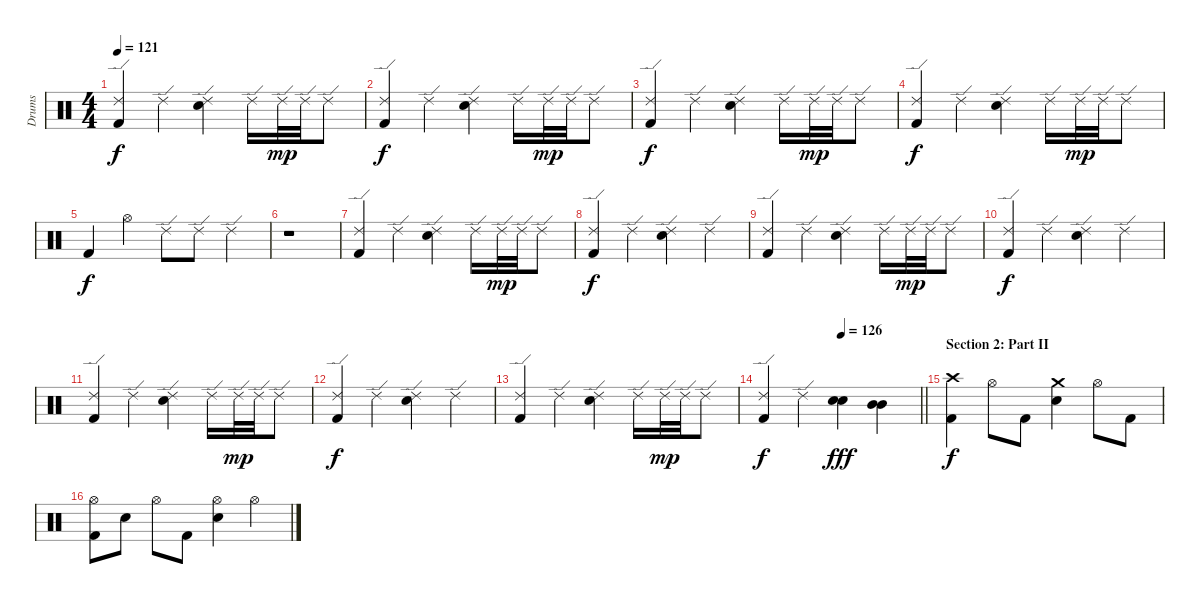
\track ("Drums" "Drums") {instrument percussion}
\staff {score}
\articulation defaults
\ts (4 4)
\tempo 121
\clef neutral
\ks c
("Ride (edge) 2" "Kick (hit) 2").4{dy f} "Ride (edge) 2".4 ("Ride (edge) 2" "Electric Snare (hit)").4 "Ride (edge) 2".16 "Ride (edge) 2".32{dy mp} "Ride (edge) 2".32 "Ride (edge) 2".8 |
("Ride (edge) 2" "Kick (hit) 2").4{dy f} "Ride (edge) 2".4 ("Ride (edge) 2" "Electric Snare (hit)").4 "Ride (edge) 2".16 "Ride (edge) 2".32{dy mp} "Ride (edge) 2".32 "Ride (edge) 2".8 |
("Ride (edge) 2" "Kick (hit) 2").4{dy f} "Ride (edge) 2".4 ("Ride (edge) 2" "Electric Snare (hit)").4 "Ride (edge) 2".16 "Ride (edge) 2".32{dy mp} "Ride (edge) 2".32 "Ride (edge) 2".8 |
("Ride (edge) 2" "Kick (hit) 2").4{dy f} "Ride (edge) 2".4 ("Ride (edge) 2" "Electric Snare (hit)").4 "Ride (edge) 2".16 "Ride (edge) 2".32{dy mp} "Ride (edge) 2".32 "Ride (edge) 2".8 |
"Kick (hit) 2".4{dy f} "Hi-Hat (open)".4 "Ride (edge) 2".8 "Ride (edge) 2".8 "Ride (edge) 2".4 |
r.1 |
("Ride (edge) 2" "Kick (hit) 2").4 "Ride (edge) 2".4 ("Ride (edge) 2" "Electric Snare (hit)").4 "Ride (edge) 2".16 "Ride (edge) 2".32{dy mp} "Ride (edge) 2".32 "Ride (edge) 2".8 |
("Ride (edge) 2" "Kick (hit) 2").4{dy f} "Ride (edge) 2".4 ("Ride (edge) 2" "Electric Snare (hit)").4 "Ride (edge) 2".4 |
("Ride (edge) 2" "Kick (hit) 2").4 "Ride (edge) 2".4 ("Ride (edge) 2" "Electric Snare (hit)").4 "Ride (edge) 2".16 "Ride (edge) 2".32{dy mp} "Ride (edge) 2".32 "Ride (edge) 2".8 |
("Ride (edge) 2" "Kick (hit) 2").4{dy f} "Ride (edge) 2".4 ("Ride (edge) 2" "Electric Snare (hit)").4 "Ride (edge) 2".4 |
("Ride (edge) 2" "Kick (hit) 2").4 "Ride (edge) 2".4 ("Ride (edge) 2" "Electric Snare (hit)").4 "Ride (edge) 2".16 "Ride (edge) 2".32{dy mp} "Ride (edge) 2".32 "Ride (edge) 2".8 |
("Ride (edge) 2" "Kick (hit) 2").4{dy f} "Ride (edge) 2".4 ("Ride (edge) 2" "Electric Snare (hit)").4 "Ride (edge) 2".4 |
("Ride (edge) 2" "Kick (hit) 2").4 "Ride (edge) 2".4 ("Ride (edge) 2" "Electric Snare (hit)").4 "Ride (edge) 2".16 "Ride (edge) 2".32{dy mp} "Ride (edge) 2".32 "Ride (edge) 2".8 |
\tempo (126 0.5)
\barLineRight lightlight
("Ride (edge) 2" "Kick (hit) 2").4{dy f} "Ride (edge) 2".4 ("Electric Snare (hit)" "Electric Snare (hit)").4{bu 60 dy fff volume 12} ("Mid Tom (hit)" "Mid Tom (hit)").4{bu 60} |
\section ("" "Section 2: Part II")
("Crash high (hit)" "Kick (hit) 2").4{dy f} "Hi-Hat (open)".8 "Kick (hit) 2".8 ("Crash medium (hit)" "Electric Snare (hit)").4 "Hi-Hat (open)".8 "Kick (hit) 2".8 |
("Hi-Hat (open)" "Kick (hit) 2").8 "Electric Snare (hit)".8 "Hi-Hat (open)".8 "Kick (hit) 2".8 ("Hi-Hat (open)" "Electric Snare (hit)").4 "Hi-Hat (open)".4
